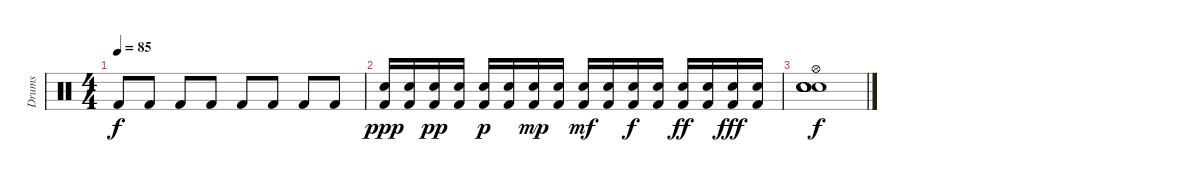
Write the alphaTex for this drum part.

\track ("Drums" "Drums") {instrument percussion}
\staff {score}
\articulation defaults
\ts (4 4)
\tempo 85
\clef neutral
\ks c "Kick (hit) 2".8{dy f} "Kick (hit) 2".8 "Kick (hit) 2".8 "Kick (hit) 2".8 "Kick (hit) 2".8 "Kick (hit) 2".8 "Kick (hit) 2".8 "Kick (hit) 2".8
|
("Snare (hit) 2" "Kick (hit) 2").16{dy ppp} ("Snare (hit) 2" "Kick (hit) 2").16 ("Snare (hit) 2" "Kick (hit) 2").16{dy pp} ("Snare (hit) 2" "Kick (hit) 2").16 ("Snare (hit) 2" "Kick (hit) 2").16{dy p} ("Snare (hit) 2" "Kick (hit) 2").16 ("Snare (hit) 2" "Kick (hit) 2").16{dy mp} ("Snare (hit) 2" "Kick (hit) 2").16 ("Snare (hit) 2" "Kick (hit) 2").16{dy mf} ("Snare (hit) 2" "Kick (hit) 2").16 ("Snare (hit) 2" "Kick (hit) 2").16{dy f} ("Snare (hit) 2" "Kick (hit) 2").16 ("Snare (hit) 2" "Kick (hit) 2").16{dy ff} ("Snare (hit) 2" "Kick (hit) 2").16 ("Snare (hit) 2" "Kick (hit) 2").16{dy fff} ("Snare (hit) 2" "Kick (hit) 2").16 |
("Hi-Hat (open)" "Snare (hit) 2" "Electric Snare (hit)" "Electric Snare (hit)" "Snare (hit) 2" "Snare (hit) 2").1{dy f}
